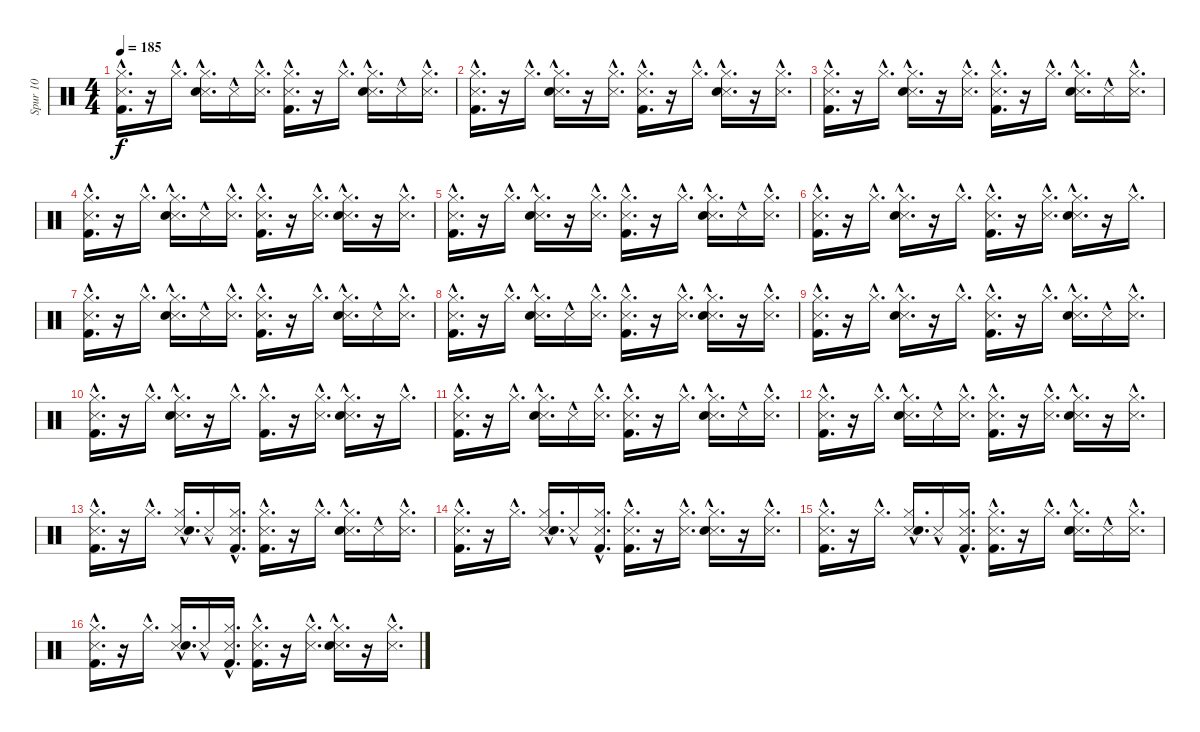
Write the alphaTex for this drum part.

\track ("Spur 10" "Spur 10") {instrument percussion}
\staff {score}
\articulation defaults
\ts (4 4)
\tempo 185
\clef neutral
\ks c
("Metronome (hit)"{hac} "Hi-Hat (closed)"{hac} "Kick (hit) 2"{hac}).16{d dy f} r.16 "Hi-Hat (closed)"{hac}.16{d} ("Metronome (hit)"{hac} "Hi-Hat (closed)"{hac} "Snare (hit) 2"{hac}).16{d} "Metronome (hit)"{hac}.16 ("Metronome (hit)"{hac} "Hi-Hat (closed)"{hac}).16{d} ("Metronome (hit)"{hac} "Hi-Hat (closed)"{hac} "Kick (hit) 2"{hac}).16{d} r.16 "Hi-Hat (closed)"{hac}.16{d} ("Metronome (hit)"{hac} "Hi-Hat (closed)"{hac} "Snare (hit) 2"{hac}).16{d} "Metronome (hit)"{hac}.16 ("Metronome (hit)"{hac} "Hi-Hat (closed)"{hac}).16{d} |
("Metronome (hit)"{hac} "Kick (hit) 2"{hac} "Hi-Hat (closed)"{hac}).16{d} r.16 "Hi-Hat (closed)"{hac}.16{d} ("Metronome (hit)"{hac} "Snare (hit) 2"{hac} "Hi-Hat (closed)"{hac}).16{d} r.16 ("Metronome (hit)"{hac} "Hi-Hat (closed)"{hac}).16{d} ("Metronome (hit)"{hac} "Kick (hit) 2"{hac} "Hi-Hat (closed)"{hac}).16{d} r.16 "Hi-Hat (closed)"{hac}.16{d} ("Metronome (hit)"{hac} "Snare (hit) 2"{hac} "Hi-Hat (closed)"{hac}).16{d} r.16 ("Metronome (hit)"{hac} "Hi-Hat (closed)"{hac}).16{d} |
("Metronome (hit)"{hac} "Kick (hit) 2"{hac} "Hi-Hat (closed)"{hac}).16{d} r.16 "Hi-Hat (closed)"{hac}.16{d} ("Metronome (hit)"{hac} "Snare (hit) 2"{hac} "Hi-Hat (closed)"{hac}).16{d} r.16 ("Metronome (hit)"{hac} "Hi-Hat (closed)"{hac}).16{d} ("Metronome (hit)"{hac} "Kick (hit) 2"{hac} "Hi-Hat (closed)"{hac}).16{d} r.16 "Hi-Hat (closed)"{hac}.16{d} ("Metronome (hit)"{hac} "Snare (hit) 2"{hac} "Hi-Hat (closed)"{hac}).16{d} "Metronome (hit)"{hac}.16 ("Metronome (hit)"{hac} "Hi-Hat (closed)"{hac}).16{d} |
("Metronome (hit)"{hac} "Kick (hit) 2"{hac} "Hi-Hat (closed)"{hac}).16{d} r.16 "Hi-Hat (closed)"{hac}.16{d} ("Metronome (hit)"{hac} "Snare (hit) 2"{hac} "Hi-Hat (closed)"{hac}).16{d} "Metronome (hit)"{hac}.16 ("Metronome (hit)"{hac} "Hi-Hat (closed)"{hac}).16{d} ("Metronome (hit)"{hac} "Kick (hit) 2"{hac} "Hi-Hat (closed)"{hac}).16{d} r.16 ("Metronome (hit)"{hac} "Hi-Hat (closed)"{hac}).16{d} ("Metronome (hit)"{hac} "Snare (hit) 2"{hac} "Hi-Hat (closed)"{hac}).16{d} r.16 ("Metronome (hit)"{hac} "Hi-Hat (closed)"{hac}).16{d} |
("Metronome (hit)"{hac} "Hi-Hat (closed)"{hac} "Kick (hit) 2"{hac}).16{d} r.16 "Hi-Hat (closed)"{hac}.16{d} ("Metronome (hit)"{hac} "Hi-Hat (closed)"{hac} "Snare (hit) 2"{hac}).16{d} r.16 ("Metronome (hit)"{hac} "Hi-Hat (closed)"{hac}).16{d} ("Metronome (hit)"{hac} "Hi-Hat (closed)"{hac} "Kick (hit) 2"{hac}).16{d} r.16 "Hi-Hat (closed)"{hac}.16{d} ("Metronome (hit)"{hac} "Hi-Hat (closed)"{hac} "Snare (hit) 2"{hac}).16{d} "Metronome (hit)"{hac}.16 ("Metronome (hit)"{hac} "Hi-Hat (closed)"{hac}).16{d} |
("Metronome (hit)"{hac} "Kick (hit) 2"{hac} "Hi-Hat (closed)"{hac}).16{d} r.16 "Hi-Hat (closed)"{hac}.16{d} ("Metronome (hit)"{hac} "Snare (hit) 2"{hac} "Hi-Hat (closed)"{hac}).16{d} r.16 "Hi-Hat (closed)"{hac}.16{d} ("Metronome (hit)"{hac} "Kick (hit) 2"{hac} "Hi-Hat (closed)"{hac}).16{d} r.16 ("Metronome (hit)"{hac} "Hi-Hat (closed)"{hac}).16{d} ("Metronome (hit)"{hac} "Snare (hit) 2"{hac} "Hi-Hat (closed)"{hac}).16{d} r.16 "Hi-Hat (closed)"{hac}.16{d} |
("Metronome (hit)"{hac} "Kick (hit) 2"{hac} "Hi-Hat (closed)"{hac}).16{d} r.16 "Hi-Hat (closed)"{hac}.16{d} ("Metronome (hit)"{hac} "Snare (hit) 2"{hac} "Hi-Hat (closed)"{hac}).16{d} "Metronome (hit)"{hac}.16 ("Metronome (hit)"{hac} "Hi-Hat (closed)"{hac}).16{d} ("Metronome (hit)"{hac} "Kick (hit) 2"{hac} "Hi-Hat (closed)"{hac}).16{d} r.16 "Hi-Hat (closed)"{hac}.16{d} ("Metronome (hit)"{hac} "Snare (hit) 2"{hac} "Hi-Hat (closed)"{hac}).16{d} "Metronome (hit)"{hac}.16 ("Metronome (hit)"{hac} "Hi-Hat (closed)"{hac}).16{d} |
("Metronome (hit)"{hac} "Kick (hit) 2"{hac} "Hi-Hat (closed)"{hac}).16{d} r.16 "Hi-Hat (closed)"{hac}.16{d} ("Metronome (hit)"{hac} "Snare (hit) 2"{hac} "Hi-Hat (closed)"{hac}).16{d} "Metronome (hit)"{hac}.16 ("Metronome (hit)"{hac} "Hi-Hat (closed)"{hac}).16{d} ("Metronome (hit)"{hac} "Kick (hit) 2"{hac} "Hi-Hat (closed)"{hac}).16{d} r.16 ("Metronome (hit)"{hac} "Hi-Hat (closed)"{hac}).16{d} ("Metronome (hit)"{hac} "Snare (hit) 2"{hac} "Hi-Hat (closed)"{hac}).16{d} r.16 ("Metronome (hit)"{hac} "Hi-Hat (closed)"{hac}).16{d} |
("Metronome (hit)"{hac} "Hi-Hat (closed)"{hac} "Kick (hit) 2"{hac}).16{d} r.16 "Hi-Hat (closed)"{hac}.16{d} ("Metronome (hit)"{hac} "Hi-Hat (closed)"{hac} "Snare (hit) 2"{hac}).16{d} r.16 "Hi-Hat (closed)"{hac}.16{d} ("Metronome (hit)"{hac} "Hi-Hat (closed)"{hac} "Kick (hit) 2"{hac}).16{d} r.16 "Hi-Hat (closed)"{hac}.16{d} ("Metronome (hit)"{hac} "Hi-Hat (closed)"{hac} "Snare (hit) 2"{hac}).16{d} "Metronome (hit)"{hac}.16 ("Metronome (hit)"{hac} "Hi-Hat (closed)"{hac}).16{d} |
("Metronome (hit)"{hac} "Kick (hit) 2"{hac} "Hi-Hat (closed)"{hac}).16{d} r.16 "Hi-Hat (closed)"{hac}.16{d} ("Metronome (hit)"{hac} "Snare (hit) 2"{hac} "Hi-Hat (closed)"{hac}).16{d} r.16 "Hi-Hat (closed)"{hac}.16{d} ("Kick (hit) 2"{hac} "Hi-Hat (closed)"{hac}).16{d} r.16 ("Metronome (hit)"{hac} "Hi-Hat (closed)"{hac}).16{d} ("Metronome (hit)"{hac} "Snare (hit) 2"{hac} "Hi-Hat (closed)"{hac}).16{d} r.16 "Hi-Hat (closed)"{hac}.16{d} |
("Metronome (hit)"{hac} "Kick (hit) 2"{hac} "Hi-Hat (closed)"{hac}).16{d} r.16 "Hi-Hat (closed)"{hac}.16{d} ("Metronome (hit)"{hac} "Snare (hit) 2"{hac} "Hi-Hat (closed)"{hac}).16{d} "Metronome (hit)"{hac}.16 ("Metronome (hit)"{hac} "Hi-Hat (closed)"{hac}).16{d} ("Metronome (hit)"{hac} "Kick (hit) 2"{hac} "Hi-Hat (closed)"{hac}).16{d} r.16 "Hi-Hat (closed)"{hac}.16{d} ("Metronome (hit)"{hac} "Snare (hit) 2"{hac} "Hi-Hat (closed)"{hac}).16{d} "Metronome (hit)"{hac}.16 ("Metronome (hit)"{hac} "Hi-Hat (closed)"{hac}).16{d} |
("Metronome (hit)"{hac} "Kick (hit) 2"{hac} "Hi-Hat (closed)"{hac}).16{d} r.16 "Hi-Hat (closed)"{hac}.16{d} ("Metronome (hit)"{hac} "Snare (hit) 2"{hac} "Hi-Hat (closed)"{hac}).16{d} "Metronome (hit)"{hac}.16 ("Metronome (hit)"{hac} "Hi-Hat (closed)"{hac}).16{d} ("Metronome (hit)"{hac} "Kick (hit) 2"{hac} "Hi-Hat (closed)"{hac}).16{d} r.16 ("Metronome (hit)"{hac} "Hi-Hat (closed)"{hac}).16{d} ("Metronome (hit)"{hac} "Snare (hit) 2"{hac} "Hi-Hat (closed)"{hac}).16{d} r.16 ("Metronome (hit)"{hac} "Hi-Hat (closed)"{hac}).16{d} |
("Metronome (hit)"{hac} "Hi-Hat (closed)"{hac} "Kick (hit) 2"{hac}).16{d} r.16 "Hi-Hat (closed)"{hac}.16{d} ("Metronome (hit)"{hac} "Hi-Hat (closed)"{hac} "Snare (hit) 2"{hac}).16{d} "Metronome (hit)"{hac}.16 ("Metronome (hit)"{hac} "Kick (hit) 2"{hac} "Hi-Hat (closed)"{hac}).16{d} ("Metronome (hit)"{hac} "Hi-Hat (closed)"{hac} "Kick (hit) 2"{hac}).16{d} r.16 "Hi-Hat (closed)"{hac}.16{d} ("Metronome (hit)"{hac} "Hi-Hat (closed)"{hac} "Snare (hit) 2"{hac}).16{d} "Metronome (hit)"{hac}.16 ("Metronome (hit)"{hac} "Hi-Hat (closed)"{hac}).16{d} |
("Metronome (hit)"{hac} "Kick (hit) 2"{hac} "Hi-Hat (closed)"{hac}).16{d} r.16 "Hi-Hat (closed)"{hac}.16{d} ("Metronome (hit)"{hac} "Snare (hit) 2"{hac} "Hi-Hat (closed)"{hac}).16{d} "Metronome (hit)"{hac}.16 ("Metronome (hit)"{hac} "Kick (hit) 2"{hac} "Hi-Hat (closed)"{hac}).16{d} ("Metronome (hit)"{hac} "Kick (hit) 2"{hac} "Hi-Hat (closed)"{hac}).16{d} r.16 ("Metronome (hit)"{hac} "Hi-Hat (closed)"{hac}).16{d} ("Metronome (hit)"{hac} "Snare (hit) 2"{hac} "Hi-Hat (closed)"{hac}).16{d} r.16 ("Metronome (hit)"{hac} "Hi-Hat (closed)"{hac}).16{d} |
("Metronome (hit)"{hac} "Kick (hit) 2"{hac} "Hi-Hat (closed)"{hac}).16{d} r.16 "Hi-Hat (closed)"{hac}.16{d} ("Metronome (hit)"{hac} "Snare (hit) 2"{hac} "Hi-Hat (closed)"{hac}).16{d} "Metronome (hit)"{hac}.16 ("Metronome (hit)"{hac} "Kick (hit) 2"{hac} "Hi-Hat (closed)"{hac}).16{d} ("Metronome (hit)"{hac} "Kick (hit) 2"{hac} "Hi-Hat (closed)"{hac}).16{d} r.16 "Hi-Hat (closed)"{hac}.16{d} ("Metronome (hit)"{hac} "Snare (hit) 2"{hac} "Hi-Hat (closed)"{hac}).16{d} "Metronome (hit)"{hac}.16 ("Metronome (hit)"{hac} "Hi-Hat (closed)"{hac}).16{d} |
("Metronome (hit)"{hac} "Kick (hit) 2"{hac} "Hi-Hat (closed)"{hac}).16{d} r.16 "Hi-Hat (closed)"{hac}.16{d} ("Metronome (hit)"{hac} "Snare (hit) 2"{hac} "Hi-Hat (closed)"{hac}).16{d} "Metronome (hit)"{hac}.16 ("Metronome (hit)"{hac} "Kick (hit) 2"{hac} "Hi-Hat (closed)"{hac}).16{d} ("Metronome (hit)"{hac} "Kick (hit) 2"{hac} "Hi-Hat (closed)"{hac}).16{d} r.16 ("Metronome (hit)"{hac} "Hi-Hat (closed)"{hac}).16{d} ("Metronome (hit)"{hac} "Snare (hit) 2"{hac} "Hi-Hat (closed)"{hac}).16{d} r.16 ("Metronome (hit)"{hac} "Hi-Hat (closed)"{hac}).16{d}
